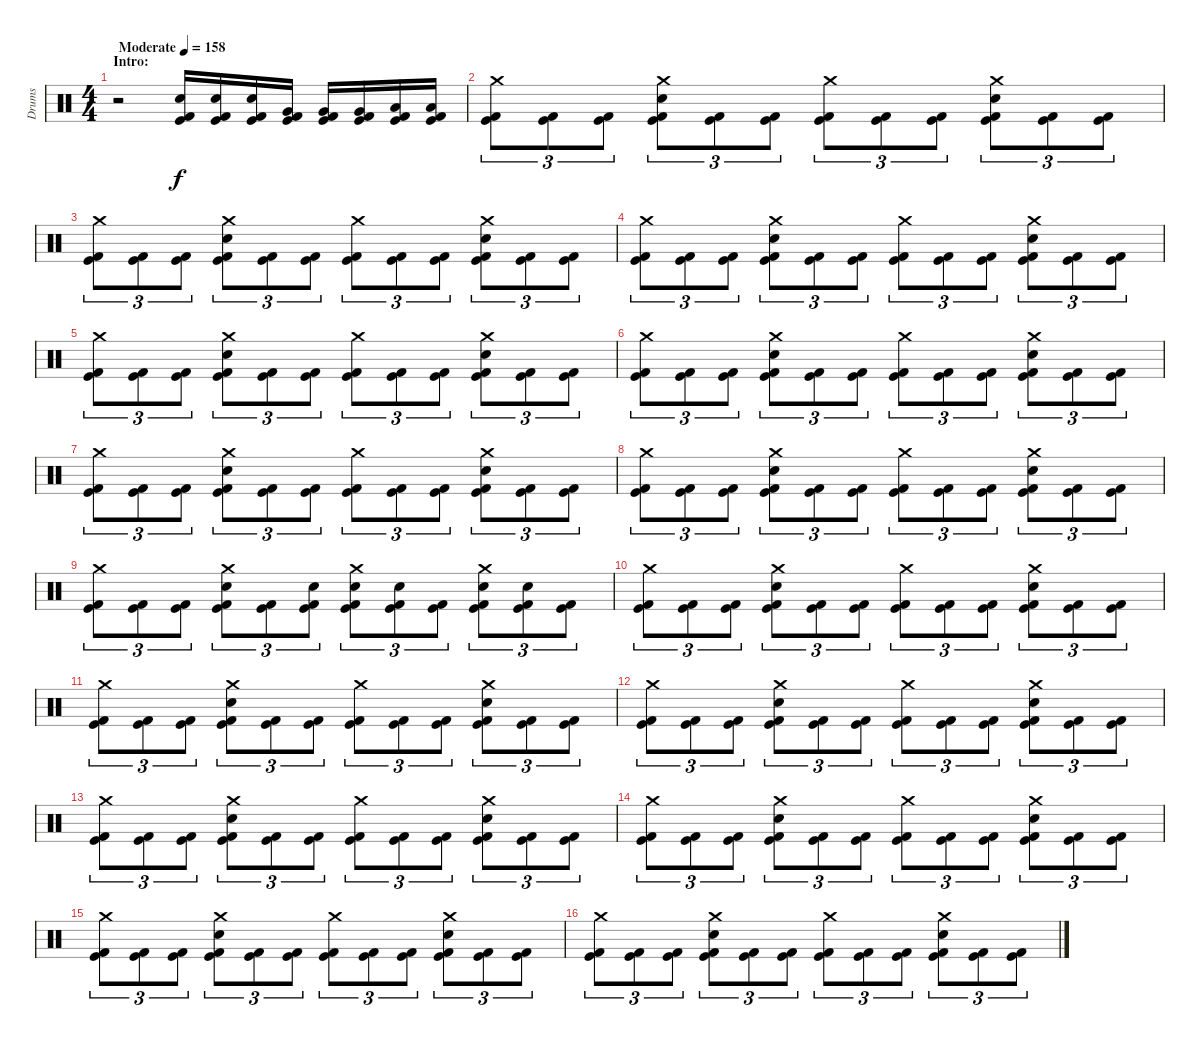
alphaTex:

\track ("Drums" "Drums") {instrument percussion}
\staff {score}
\articulation defaults
\ts (4 4)
\section ("" "Intro:")
\tempo (158 "Moderate")
\clef neutral
\ks c
r.2{dy f} ("Snare (hit) 2" "Kick (hit)" "Kick (hit) 2").16 ("Snare (hit) 2" "Kick (hit)" "Kick (hit) 2").16 ("Snare (hit) 2" "Kick (hit)" "Kick (hit) 2").16 ("Very Low Tom (hit)" "Kick (hit)" "Kick (hit) 2").16 ("Very Low Tom (hit)" "Kick (hit)" "Kick (hit) 2").16 ("Very Low Tom (hit)" "Kick (hit)" "Kick (hit) 2").16 ("Low Floor Tom (hit)" "Kick (hit)" "Kick (hit) 2").16 ("Low Floor Tom (hit)" "Kick (hit)" "Kick (hit) 2").16 |
("Crash medium (hit)" "Kick (hit)" "Kick (hit) 2").8{tu (3 2)} ("Kick (hit)" "Kick (hit) 2").8{tu (3 2)} ("Kick (hit)" "Kick (hit) 2").8{tu (3 2)} ("Crash medium (hit)" "Snare (hit) 2" "Kick (hit)" "Kick (hit) 2").8{tu (3 2)} ("Kick (hit)" "Kick (hit) 2").8{tu (3 2)} ("Kick (hit)" "Kick (hit) 2").8{tu (3 2)} ("Crash medium (hit)" "Kick (hit)" "Kick (hit) 2").8{tu (3 2)} ("Kick (hit)" "Kick (hit) 2").8{tu (3 2)} ("Kick (hit)" "Kick (hit) 2").8{tu (3 2)} ("Crash medium (hit)" "Snare (hit) 2" "Kick (hit)" "Kick (hit) 2").8{tu (3 2)} ("Kick (hit)" "Kick (hit) 2").8{tu (3 2)} ("Kick (hit)" "Kick (hit) 2").8{tu (3 2)} |
("Crash medium (hit)" "Kick (hit)" "Kick (hit) 2").8{tu (3 2)} ("Kick (hit)" "Kick (hit) 2").8{tu (3 2)} ("Kick (hit)" "Kick (hit) 2").8{tu (3 2)} ("Crash medium (hit)" "Snare (hit) 2" "Kick (hit)" "Kick (hit) 2").8{tu (3 2)} ("Kick (hit)" "Kick (hit) 2").8{tu (3 2)} ("Kick (hit)" "Kick (hit) 2").8{tu (3 2)} ("Crash medium (hit)" "Kick (hit)" "Kick (hit) 2").8{tu (3 2)} ("Kick (hit)" "Kick (hit) 2").8{tu (3 2)} ("Kick (hit)" "Kick (hit) 2").8{tu (3 2)} ("Crash medium (hit)" "Snare (hit) 2" "Kick (hit)" "Kick (hit) 2").8{tu (3 2)} ("Kick (hit)" "Kick (hit) 2").8{tu (3 2)} ("Kick (hit)" "Kick (hit) 2").8{tu (3 2)} |
("Crash medium (hit)" "Kick (hit)" "Kick (hit) 2").8{tu (3 2)} ("Kick (hit)" "Kick (hit) 2").8{tu (3 2)} ("Kick (hit)" "Kick (hit) 2").8{tu (3 2)} ("Crash medium (hit)" "Snare (hit) 2" "Kick (hit)" "Kick (hit) 2").8{tu (3 2)} ("Kick (hit)" "Kick (hit) 2").8{tu (3 2)} ("Kick (hit)" "Kick (hit) 2").8{tu (3 2)} ("Crash medium (hit)" "Kick (hit)" "Kick (hit) 2").8{tu (3 2)} ("Kick (hit)" "Kick (hit) 2").8{tu (3 2)} ("Kick (hit)" "Kick (hit) 2").8{tu (3 2)} ("Crash medium (hit)" "Snare (hit) 2" "Kick (hit)" "Kick (hit) 2").8{tu (3 2)} ("Kick (hit)" "Kick (hit) 2").8{tu (3 2)} ("Kick (hit)" "Kick (hit) 2").8{tu (3 2)} |
("Crash medium (hit)" "Kick (hit)" "Kick (hit) 2").8{tu (3 2)} ("Kick (hit)" "Kick (hit) 2").8{tu (3 2)} ("Kick (hit)" "Kick (hit) 2").8{tu (3 2)} ("Crash medium (hit)" "Snare (hit) 2" "Kick (hit)" "Kick (hit) 2").8{tu (3 2)} ("Kick (hit)" "Kick (hit) 2").8{tu (3 2)} ("Kick (hit)" "Kick (hit) 2").8{tu (3 2)} ("Crash medium (hit)" "Kick (hit)" "Kick (hit) 2").8{tu (3 2)} ("Kick (hit)" "Kick (hit) 2").8{tu (3 2)} ("Kick (hit)" "Kick (hit) 2").8{tu (3 2)} ("Crash medium (hit)" "Snare (hit) 2" "Kick (hit)" "Kick (hit) 2").8{tu (3 2)} ("Kick (hit)" "Kick (hit) 2").8{tu (3 2)} ("Kick (hit)" "Kick (hit) 2").8{tu (3 2)} |
("Crash medium (hit)" "Kick (hit)" "Kick (hit) 2").8{tu (3 2)} ("Kick (hit)" "Kick (hit) 2").8{tu (3 2)} ("Kick (hit)" "Kick (hit) 2").8{tu (3 2)} ("Crash medium (hit)" "Snare (hit) 2" "Kick (hit)" "Kick (hit) 2").8{tu (3 2)} ("Kick (hit)" "Kick (hit) 2").8{tu (3 2)} ("Kick (hit)" "Kick (hit) 2").8{tu (3 2)} ("Crash medium (hit)" "Kick (hit)" "Kick (hit) 2").8{tu (3 2)} ("Kick (hit)" "Kick (hit) 2").8{tu (3 2)} ("Kick (hit)" "Kick (hit) 2").8{tu (3 2)} ("Crash medium (hit)" "Snare (hit) 2" "Kick (hit)" "Kick (hit) 2").8{tu (3 2)} ("Kick (hit)" "Kick (hit) 2").8{tu (3 2)} ("Kick (hit)" "Kick (hit) 2").8{tu (3 2)} |
("Crash medium (hit)" "Kick (hit)" "Kick (hit) 2").8{tu (3 2)} ("Kick (hit)" "Kick (hit) 2").8{tu (3 2)} ("Kick (hit)" "Kick (hit) 2").8{tu (3 2)} ("Crash medium (hit)" "Snare (hit) 2" "Kick (hit)" "Kick (hit) 2").8{tu (3 2)} ("Kick (hit)" "Kick (hit) 2").8{tu (3 2)} ("Kick (hit)" "Kick (hit) 2").8{tu (3 2)} ("Crash medium (hit)" "Kick (hit)" "Kick (hit) 2").8{tu (3 2)} ("Kick (hit)" "Kick (hit) 2").8{tu (3 2)} ("Kick (hit)" "Kick (hit) 2").8{tu (3 2)} ("Crash medium (hit)" "Snare (hit) 2" "Kick (hit)" "Kick (hit) 2").8{tu (3 2)} ("Kick (hit)" "Kick (hit) 2").8{tu (3 2)} ("Kick (hit)" "Kick (hit) 2").8{tu (3 2)} |
("Crash medium (hit)" "Kick (hit)" "Kick (hit) 2").8{tu (3 2)} ("Kick (hit)" "Kick (hit) 2").8{tu (3 2)} ("Kick (hit)" "Kick (hit) 2").8{tu (3 2)} ("Crash medium (hit)" "Snare (hit) 2" "Kick (hit)" "Kick (hit) 2").8{tu (3 2)} ("Kick (hit)" "Kick (hit) 2").8{tu (3 2)} ("Kick (hit)" "Kick (hit) 2").8{tu (3 2)} ("Crash medium (hit)" "Kick (hit)" "Kick (hit) 2").8{tu (3 2)} ("Kick (hit)" "Kick (hit) 2").8{tu (3 2)} ("Kick (hit)" "Kick (hit) 2").8{tu (3 2)} ("Crash medium (hit)" "Snare (hit) 2" "Kick (hit)" "Kick (hit) 2").8{tu (3 2)} ("Kick (hit)" "Kick (hit) 2").8{tu (3 2)} ("Kick (hit)" "Kick (hit) 2").8{tu (3 2)} |
("Crash medium (hit)" "Kick (hit)" "Kick (hit) 2").8{tu (3 2)} ("Kick (hit)" "Kick (hit) 2").8{tu (3 2)} ("Kick (hit)" "Kick (hit) 2").8{tu (3 2)} ("Crash medium (hit)" "Snare (hit) 2" "Kick (hit)" "Kick (hit) 2").8{tu (3 2)} ("Kick (hit)" "Kick (hit) 2").8{tu (3 2)} ("Snare (hit) 2" "Kick (hit)" "Kick (hit) 2").8{tu (3 2)} ("Crash medium (hit)" "Snare (hit) 2" "Kick (hit)" "Kick (hit) 2").8{tu (3 2)} ("Snare (hit) 2" "Kick (hit)" "Kick (hit) 2").8{tu (3 2)} ("Kick (hit)" "Kick (hit) 2").8{tu (3 2)} ("Crash medium (hit)" "Snare (hit) 2" "Kick (hit)" "Kick (hit) 2").8{tu (3 2)} ("Snare (hit) 2" "Kick (hit)" "Kick (hit) 2").8{tu (3 2)} ("Kick (hit)" "Kick (hit) 2").8{tu (3 2)} |
("Crash medium (hit)" "Kick (hit)" "Kick (hit) 2").8{tu (3 2)} ("Kick (hit)" "Kick (hit) 2").8{tu (3 2)} ("Kick (hit)" "Kick (hit) 2").8{tu (3 2)} ("Crash medium (hit)" "Snare (hit) 2" "Kick (hit)" "Kick (hit) 2").8{tu (3 2)} ("Kick (hit)" "Kick (hit) 2").8{tu (3 2)} ("Kick (hit)" "Kick (hit) 2").8{tu (3 2)} ("Crash medium (hit)" "Kick (hit)" "Kick (hit) 2").8{tu (3 2)} ("Kick (hit)" "Kick (hit) 2").8{tu (3 2)} ("Kick (hit)" "Kick (hit) 2").8{tu (3 2)} ("Crash medium (hit)" "Snare (hit) 2" "Kick (hit)" "Kick (hit) 2").8{tu (3 2)} ("Kick (hit)" "Kick (hit) 2").8{tu (3 2)} ("Kick (hit)" "Kick (hit) 2").8{tu (3 2)} |
("Crash medium (hit)" "Kick (hit)" "Kick (hit) 2").8{tu (3 2)} ("Kick (hit)" "Kick (hit) 2").8{tu (3 2)} ("Kick (hit)" "Kick (hit) 2").8{tu (3 2)} ("Crash medium (hit)" "Snare (hit) 2" "Kick (hit)" "Kick (hit) 2").8{tu (3 2)} ("Kick (hit)" "Kick (hit) 2").8{tu (3 2)} ("Kick (hit)" "Kick (hit) 2").8{tu (3 2)} ("Crash medium (hit)" "Kick (hit)" "Kick (hit) 2").8{tu (3 2)} ("Kick (hit)" "Kick (hit) 2").8{tu (3 2)} ("Kick (hit)" "Kick (hit) 2").8{tu (3 2)} ("Crash medium (hit)" "Snare (hit) 2" "Kick (hit)" "Kick (hit) 2").8{tu (3 2)} ("Kick (hit)" "Kick (hit) 2").8{tu (3 2)} ("Kick (hit)" "Kick (hit) 2").8{tu (3 2)} |
("Crash medium (hit)" "Kick (hit)" "Kick (hit) 2").8{tu (3 2)} ("Kick (hit)" "Kick (hit) 2").8{tu (3 2)} ("Kick (hit)" "Kick (hit) 2").8{tu (3 2)} ("Crash medium (hit)" "Snare (hit) 2" "Kick (hit)" "Kick (hit) 2").8{tu (3 2)} ("Kick (hit)" "Kick (hit) 2").8{tu (3 2)} ("Kick (hit)" "Kick (hit) 2").8{tu (3 2)} ("Crash medium (hit)" "Kick (hit)" "Kick (hit) 2").8{tu (3 2)} ("Kick (hit)" "Kick (hit) 2").8{tu (3 2)} ("Kick (hit)" "Kick (hit) 2").8{tu (3 2)} ("Crash medium (hit)" "Snare (hit) 2" "Kick (hit)" "Kick (hit) 2").8{tu (3 2)} ("Kick (hit)" "Kick (hit) 2").8{tu (3 2)} ("Kick (hit)" "Kick (hit) 2").8{tu (3 2)} |
("Crash medium (hit)" "Kick (hit)" "Kick (hit) 2").8{tu (3 2)} ("Kick (hit)" "Kick (hit) 2").8{tu (3 2)} ("Kick (hit)" "Kick (hit) 2").8{tu (3 2)} ("Crash medium (hit)" "Snare (hit) 2" "Kick (hit)" "Kick (hit) 2").8{tu (3 2)} ("Kick (hit)" "Kick (hit) 2").8{tu (3 2)} ("Kick (hit)" "Kick (hit) 2").8{tu (3 2)} ("Crash medium (hit)" "Kick (hit)" "Kick (hit) 2").8{tu (3 2)} ("Kick (hit)" "Kick (hit) 2").8{tu (3 2)} ("Kick (hit)" "Kick (hit) 2").8{tu (3 2)} ("Crash medium (hit)" "Snare (hit) 2" "Kick (hit)" "Kick (hit) 2").8{tu (3 2)} ("Kick (hit)" "Kick (hit) 2").8{tu (3 2)} ("Kick (hit)" "Kick (hit) 2").8{tu (3 2)} |
("Crash medium (hit)" "Kick (hit)" "Kick (hit) 2").8{tu (3 2)} ("Kick (hit)" "Kick (hit) 2").8{tu (3 2)} ("Kick (hit)" "Kick (hit) 2").8{tu (3 2)} ("Crash medium (hit)" "Snare (hit) 2" "Kick (hit)" "Kick (hit) 2").8{tu (3 2)} ("Kick (hit)" "Kick (hit) 2").8{tu (3 2)} ("Kick (hit)" "Kick (hit) 2").8{tu (3 2)} ("Crash medium (hit)" "Kick (hit)" "Kick (hit) 2").8{tu (3 2)} ("Kick (hit)" "Kick (hit) 2").8{tu (3 2)} ("Kick (hit)" "Kick (hit) 2").8{tu (3 2)} ("Crash medium (hit)" "Snare (hit) 2" "Kick (hit)" "Kick (hit) 2").8{tu (3 2)} ("Kick (hit)" "Kick (hit) 2").8{tu (3 2)} ("Kick (hit)" "Kick (hit) 2").8{tu (3 2)} |
("Crash medium (hit)" "Kick (hit)" "Kick (hit) 2").8{tu (3 2)} ("Kick (hit)" "Kick (hit) 2").8{tu (3 2)} ("Kick (hit)" "Kick (hit) 2").8{tu (3 2)} ("Crash medium (hit)" "Snare (hit) 2" "Kick (hit)" "Kick (hit) 2").8{tu (3 2)} ("Kick (hit)" "Kick (hit) 2").8{tu (3 2)} ("Kick (hit)" "Kick (hit) 2").8{tu (3 2)} ("Crash medium (hit)" "Kick (hit)" "Kick (hit) 2").8{tu (3 2)} ("Kick (hit)" "Kick (hit) 2").8{tu (3 2)} ("Kick (hit)" "Kick (hit) 2").8{tu (3 2)} ("Crash medium (hit)" "Snare (hit) 2" "Kick (hit)" "Kick (hit) 2").8{tu (3 2)} ("Kick (hit)" "Kick (hit) 2").8{tu (3 2)} ("Kick (hit)" "Kick (hit) 2").8{tu (3 2)} |
("Crash medium (hit)" "Kick (hit)" "Kick (hit) 2").8{tu (3 2)} ("Kick (hit)" "Kick (hit) 2").8{tu (3 2)} ("Kick (hit)" "Kick (hit) 2").8{tu (3 2)} ("Crash medium (hit)" "Snare (hit) 2" "Kick (hit)" "Kick (hit) 2").8{tu (3 2)} ("Kick (hit)" "Kick (hit) 2").8{tu (3 2)} ("Kick (hit)" "Kick (hit) 2").8{tu (3 2)} ("Crash medium (hit)" "Kick (hit)" "Kick (hit) 2").8{tu (3 2)} ("Kick (hit)" "Kick (hit) 2").8{tu (3 2)} ("Kick (hit)" "Kick (hit) 2").8{tu (3 2)} ("Crash medium (hit)" "Snare (hit) 2" "Kick (hit)" "Kick (hit) 2").8{tu (3 2)} ("Kick (hit)" "Kick (hit) 2").8{tu (3 2)} ("Kick (hit)" "Kick (hit) 2").8{tu (3 2)}
